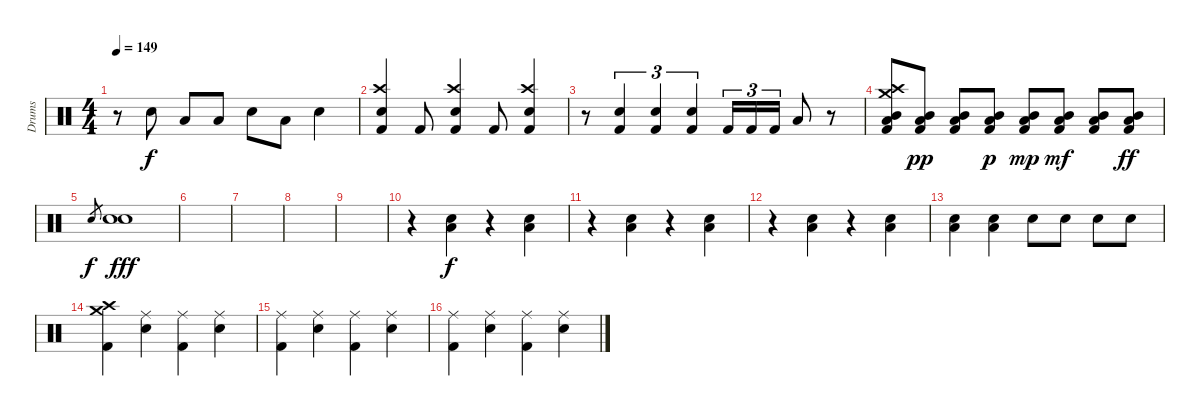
\track ("Drums" "Drums") {instrument percussion}
\staff {score}
\articulation defaults
\ts (4 4)
\tempo 149
\clef neutral
\ks c
r.8{dy f} "Snare (hit) 2".8 "Low Tom (hit)".8 "Low Tom (hit)".8 "Snare (hit) 2".8 "Low Tom (hit)".8 "Snare (hit) 2".4 |
("Crash high (hit)" "Snare (hit) 2" "Kick (hit) 2").4 "Kick (hit) 2".8 ("Crash high (hit)" "Snare (hit) 2" "Kick (hit) 2").4 "Kick (hit) 2".8 ("Crash high (hit)" "Snare (hit) 2" "Kick (hit) 2").4 |
r.8 ("Snare (hit) 2" "Kick (hit) 2").4{tu (3 2)} ("Snare (hit) 2" "Kick (hit) 2").4{tu (3 2)} ("Snare (hit) 2" "Kick (hit) 2").4{tu (3 2)} "Kick (hit) 2".16{tu (3 2)} "Kick (hit) 2".16{tu (3 2)} "Kick (hit) 2".16{tu (3 2)} "Low Tom (hit)".8 r.8 |
("Crash high (hit)" "Crash medium (hit)" "Mid Tom (hit)" "Low Tom (hit)" "Kick (hit) 2").8 ("Mid Tom (hit)" "Low Tom (hit)" "Kick (hit) 2").8{dy pp} ("Mid Tom (hit)" "Low Tom (hit)" "Kick (hit) 2").8 ("Mid Tom (hit)" "Low Tom (hit)" "Kick (hit) 2").8{dy p} ("Mid Tom (hit)" "Low Tom (hit)" "Kick (hit) 2").8{dy mp} ("Mid Tom (hit)" "Low Tom (hit)" "Kick (hit) 2").8{dy mf} ("Mid Tom (hit)" "Low Tom (hit)" "Kick (hit) 2").8 ("Mid Tom (hit)" "Low Tom (hit)" "Kick (hit) 2").8{dy ff} |
"Snare (hit) 2".8{gr dy f} ("Snare (hit) 2" "Snare (hit) 2").1{dy fff} |
|
|
|
|
r.4 ("Low Tom (hit)" "Snare (hit) 2").4{dy f} r.4 ("Low Tom (hit)" "Snare (hit) 2").4 |
r.4 ("Low Tom (hit)" "Snare (hit) 2").4 r.4 ("Low Tom (hit)" "Snare (hit) 2").4 |
r.4 ("Low Tom (hit)" "Snare (hit) 2").4 r.4 ("Low Tom (hit)" "Snare (hit) 2").4 |
("Low Tom (hit)" "Snare (hit) 2").4 ("Low Tom (hit)" "Snare (hit) 2").4 "Snare (hit) 2".8 "Snare (hit) 2".8 "Snare (hit) 2".8 "Snare (hit) 2".8 |
("Crash high (hit)" "Crash medium (hit)" "Kick (hit) 2").4 ("Ride (middle)" "Snare (hit) 2").4 ("Ride (middle)" "Kick (hit) 2").4 ("Ride (middle)" "Snare (hit) 2").4 |
("Ride (middle)" "Kick (hit) 2").4 ("Ride (middle)" "Snare (hit) 2").4 ("Ride (middle)" "Kick (hit) 2").4 ("Ride (middle)" "Snare (hit) 2").4 |
("Ride (middle)" "Kick (hit) 2").4 ("Ride (middle)" "Snare (hit) 2").4 ("Ride (middle)" "Kick (hit) 2").4 ("Ride (middle)" "Snare (hit) 2").4
